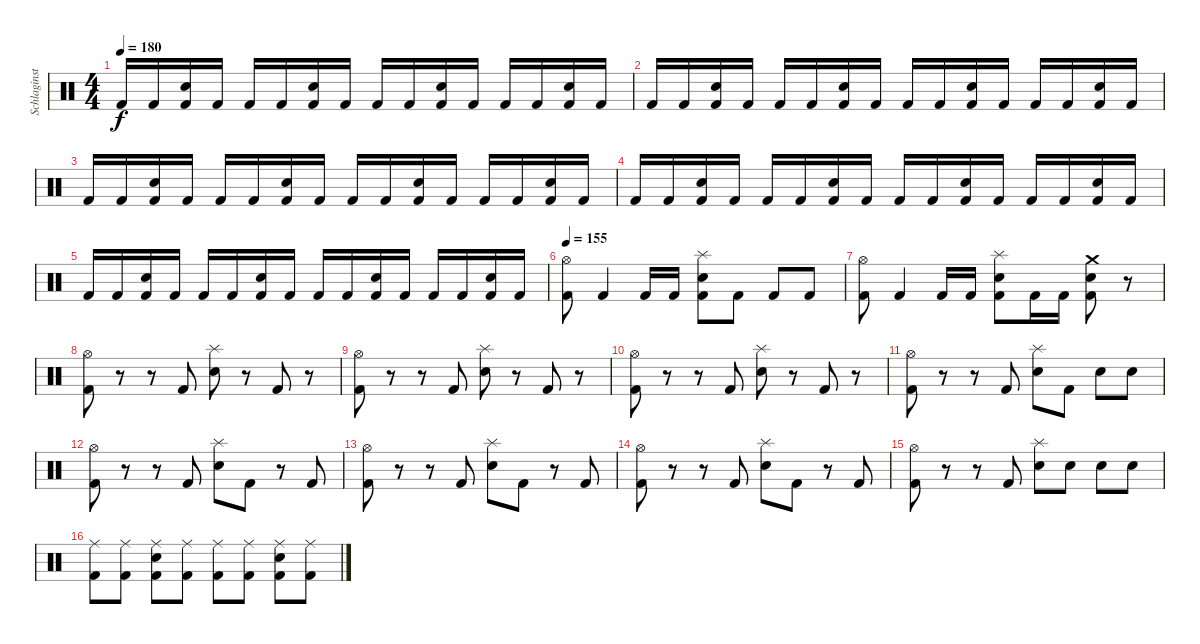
\track ("Schlaginstrumente - Auswahl" "Schlaginst") {instrument percussion}
\staff {score}
\articulation defaults
\ts (4 4)
\tempo 180
\clef neutral
\ks c "Kick (hit) 2".16{dy f} "Kick (hit) 2".16
("Snare (hit) 2" "Kick (hit) 2").16 "Kick (hit) 2".16 "Kick (hit) 2".16 "Kick (hit) 2".16 ("Snare (hit) 2" "Kick (hit) 2").16 "Kick (hit) 2".16 "Kick (hit) 2".16 "Kick (hit) 2".16 ("Snare (hit) 2" "Kick (hit) 2").16 "Kick (hit) 2".16 "Kick (hit) 2".16 "Kick (hit) 2".16 ("Snare (hit) 2" "Kick (hit) 2").16 "Kick (hit) 2".16 |
"Kick (hit) 2".16 "Kick (hit) 2".16 ("Snare (hit) 2" "Kick (hit) 2").16 "Kick (hit) 2".16 "Kick (hit) 2".16 "Kick (hit) 2".16 ("Snare (hit) 2" "Kick (hit) 2").16 "Kick (hit) 2".16 "Kick (hit) 2".16 "Kick (hit) 2".16 ("Snare (hit) 2" "Kick (hit) 2").16 "Kick (hit) 2".16 "Kick (hit) 2".16 "Kick (hit) 2".16 ("Snare (hit) 2" "Kick (hit) 2").16 "Kick (hit) 2".16 |
"Kick (hit) 2".16 "Kick (hit) 2".16 ("Snare (hit) 2" "Kick (hit) 2").16 "Kick (hit) 2".16 "Kick (hit) 2".16 "Kick (hit) 2".16 ("Snare (hit) 2" "Kick (hit) 2").16 "Kick (hit) 2".16 "Kick (hit) 2".16 "Kick (hit) 2".16 ("Snare (hit) 2" "Kick (hit) 2").16 "Kick (hit) 2".16 "Kick (hit) 2".16 "Kick (hit) 2".16 ("Snare (hit) 2" "Kick (hit) 2").16 "Kick (hit) 2".16 |
"Kick (hit) 2".16 "Kick (hit) 2".16 ("Snare (hit) 2" "Kick (hit) 2").16 "Kick (hit) 2".16 "Kick (hit) 2".16 "Kick (hit) 2".16 ("Snare (hit) 2" "Kick (hit) 2").16 "Kick (hit) 2".16 "Kick (hit) 2".16 "Kick (hit) 2".16 ("Snare (hit) 2" "Kick (hit) 2").16 "Kick (hit) 2".16 "Kick (hit) 2".16 "Kick (hit) 2".16 ("Snare (hit) 2" "Kick (hit) 2").16 "Kick (hit) 2".16 |
"Kick (hit) 2".16 "Kick (hit) 2".16 ("Snare (hit) 2" "Kick (hit) 2").16 "Kick (hit) 2".16 "Kick (hit) 2".16 "Kick (hit) 2".16 ("Snare (hit) 2" "Kick (hit) 2").16 "Kick (hit) 2".16 "Kick (hit) 2".16 "Kick (hit) 2".16 ("Snare (hit) 2" "Kick (hit) 2").16 "Kick (hit) 2".16 "Kick (hit) 2".16 "Kick (hit) 2".16 ("Snare (hit) 2" "Kick (hit) 2").16 "Kick (hit) 2".16 |
\tempo 155
("Hi-Hat (open)" "Kick (hit) 2").8 "Kick (hit) 2".4 "Kick (hit) 2".16 "Kick (hit) 2".16 ("Splash (hit)" "Snare (hit) 2" "Kick (hit) 2").8 "Kick (hit) 2".8 "Kick (hit) 2".8 "Kick (hit) 2".8 |
("Hi-Hat (open)" "Kick (hit) 2").8 "Kick (hit) 2".4 "Kick (hit) 2".16 "Kick (hit) 2".16 ("Splash (hit)" "Snare (hit) 2" "Kick (hit) 2").8 "Kick (hit) 2".16 "Kick (hit) 2".16 ("Crash medium (hit)" "Snare (hit) 2" "Kick (hit) 2").8 r.8 |
("Hi-Hat (open)" "Kick (hit) 2").8 r.8 r.8 "Kick (hit) 2".8 ("Splash (hit)" "Snare (hit) 2").8 r.8 "Kick (hit) 2".8 r.8 |
("Hi-Hat (open)" "Kick (hit) 2").8 r.8 r.8 "Kick (hit) 2".8 ("Splash (hit)" "Snare (hit) 2").8 r.8 "Kick (hit) 2".8 r.8 |
("Hi-Hat (open)" "Kick (hit) 2").8 r.8 r.8 "Kick (hit) 2".8 ("Splash (hit)" "Snare (hit) 2").8 r.8 "Kick (hit) 2".8 r.8 |
("Hi-Hat (open)" "Kick (hit) 2").8 r.8 r.8 "Kick (hit) 2".8 ("Splash (hit)" "Snare (hit) 2").8 "Kick (hit) 2".8 "Snare (hit) 2".8 "Snare (hit) 2".8 |
("Hi-Hat (open)" "Kick (hit) 2").8 r.8 r.8 "Kick (hit) 2".8 ("Splash (hit)" "Snare (hit) 2").8 "Kick (hit) 2".8 r.8 "Kick (hit) 2".8 |
("Hi-Hat (open)" "Kick (hit) 2").8 r.8 r.8 "Kick (hit) 2".8 ("Splash (hit)" "Snare (hit) 2").8 "Kick (hit) 2".8 r.8 "Kick (hit) 2".8 |
("Hi-Hat (open)" "Kick (hit) 2").8 r.8 r.8 "Kick (hit) 2".8 ("Splash (hit)" "Snare (hit) 2").8 "Kick (hit) 2".8 r.8 "Kick (hit) 2".8 |
("Hi-Hat (open)" "Kick (hit) 2").8 r.8 r.8 "Kick (hit) 2".8 ("Splash (hit)" "Snare (hit) 2").8 "Snare (hit) 2".8 "Snare (hit) 2".8 "Snare (hit) 2".8 |
("Ride (middle)" "Kick (hit) 2").8 ("Ride (middle)" "Kick (hit) 2").8 ("Ride (middle)" "Snare (hit) 2" "Kick (hit) 2").8 ("Ride (middle)" "Kick (hit) 2").8 ("Ride (middle)" "Kick (hit) 2").8 ("Ride (middle)" "Kick (hit) 2").8 ("Ride (middle)" "Snare (hit) 2" "Kick (hit) 2").8 ("Ride (middle)" "Kick (hit) 2").8
